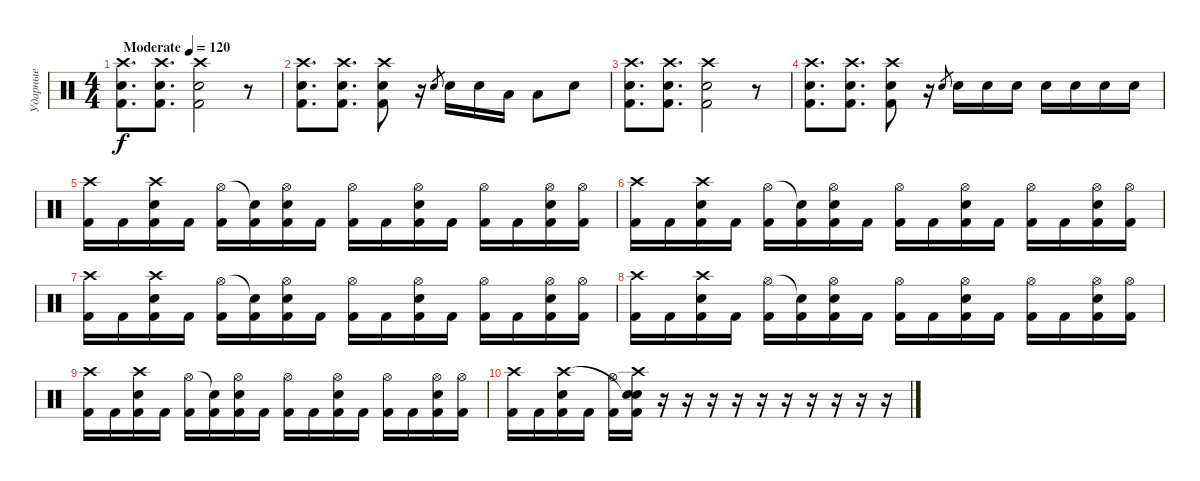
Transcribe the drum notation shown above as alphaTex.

\track ("Ударные" "Ударные") {instrument percussion}
\staff {score}
\articulation defaults
\ts (4 4)
\tempo (120 "Moderate")
\clef neutral
\ks c
("Electric Snare (hit)" "Kick (hit) 2" "Crash high (hit)").8{d dy f} ("Electric Snare (hit)" "Kick (hit) 2" "Crash high (hit)").8{d} ("Electric Snare (hit)" "Crash high (hit)" "Kick (hit) 2").2 r.8 |
("Electric Snare (hit)" "Kick (hit) 2" "Crash high (hit)").8{d} ("Electric Snare (hit)" "Kick (hit) 2" "Crash high (hit)").8{d} ("Electric Snare (hit)" "Crash high (hit)" "Kick (hit) 2").8 r.16 "Electric Snare (hit)".8{gr} "Electric Snare (hit)".16 "Electric Snare (hit)".16 "Low Floor Tom (hit)".16 "Low Floor Tom (hit)".8 "Electric Snare (hit)".8 |
("Electric Snare (hit)" "Kick (hit) 2" "Crash high (hit)").8{d} ("Electric Snare (hit)" "Kick (hit) 2" "Crash high (hit)").8{d} ("Electric Snare (hit)" "Crash high (hit)" "Kick (hit) 2").2 r.8 |
("Electric Snare (hit)" "Kick (hit) 2" "Crash high (hit)").8{d} ("Electric Snare (hit)" "Kick (hit) 2" "Crash high (hit)").8{d} ("Electric Snare (hit)" "Crash high (hit)" "Kick (hit) 2").8 r.16 "Electric Snare (hit)".8{gr} "Electric Snare (hit)".16 "Electric Snare (hit)".16 "Electric Snare (hit)".16 "Electric Snare (hit)".16 "Electric Snare (hit)".16 "Electric Snare (hit)".16 "Electric Snare (hit)".16 |
("Kick (hit) 2" "Crash high (hit)").16 "Kick (hit) 2".16 ("Kick (hit) 2" "Electric Snare (hit)" "Crash high (hit)").16 "Kick (hit) 2".16 ("Kick (hit) 2" "Hi-Hat (open)").16 ("Kick (hit) 2" "Snare (hit)"{t}).16 ("Kick (hit) 2" "Electric Snare (hit)" "Hi-Hat (open)").16 "Kick (hit) 2".16 ("Kick (hit) 2" "Hi-Hat (open)").16 "Kick (hit) 2".16 ("Kick (hit) 2" "Electric Snare (hit)" "Hi-Hat (open)").16 "Kick (hit) 2".16 ("Kick (hit) 2" "Hi-Hat (open)").16 "Kick (hit) 2".16 ("Kick (hit) 2" "Electric Snare (hit)" "Hi-Hat (open)").16 ("Kick (hit) 2" "Hi-Hat (open)").16 |
("Kick (hit) 2" "Crash high (hit)").16 "Kick (hit) 2".16 ("Kick (hit) 2" "Electric Snare (hit)" "Crash high (hit)").16 "Kick (hit) 2".16 ("Kick (hit) 2" "Hi-Hat (open)").16 ("Kick (hit) 2" "Snare (hit)"{t}).16 ("Kick (hit) 2" "Electric Snare (hit)" "Hi-Hat (open)").16 "Kick (hit) 2".16 ("Kick (hit) 2" "Hi-Hat (open)").16 "Kick (hit) 2".16 ("Kick (hit) 2" "Electric Snare (hit)" "Hi-Hat (open)").16 "Kick (hit) 2".16 ("Kick (hit) 2" "Hi-Hat (open)").16 "Kick (hit) 2".16 ("Kick (hit) 2" "Electric Snare (hit)" "Hi-Hat (open)").16 ("Kick (hit) 2" "Hi-Hat (open)").16 |
("Kick (hit) 2" "Crash high (hit)").16 "Kick (hit) 2".16 ("Kick (hit) 2" "Electric Snare (hit)" "Crash high (hit)").16 "Kick (hit) 2".16 ("Kick (hit) 2" "Hi-Hat (open)").16 ("Kick (hit) 2" "Snare (hit)"{t}).16 ("Kick (hit) 2" "Electric Snare (hit)" "Hi-Hat (open)").16 "Kick (hit) 2".16 ("Kick (hit) 2" "Hi-Hat (open)").16 "Kick (hit) 2".16 ("Kick (hit) 2" "Electric Snare (hit)" "Hi-Hat (open)").16 "Kick (hit) 2".16 ("Kick (hit) 2" "Hi-Hat (open)").16 "Kick (hit) 2".16 ("Kick (hit) 2" "Electric Snare (hit)" "Hi-Hat (open)").16 ("Kick (hit) 2" "Hi-Hat (open)").16 |
("Kick (hit) 2" "Crash high (hit)").16 "Kick (hit) 2".16 ("Kick (hit) 2" "Electric Snare (hit)" "Crash high (hit)").16 "Kick (hit) 2".16 ("Kick (hit) 2" "Hi-Hat (open)").16 ("Kick (hit) 2" "Snare (hit)"{t}).16 ("Kick (hit) 2" "Electric Snare (hit)" "Hi-Hat (open)").16 "Kick (hit) 2".16 ("Kick (hit) 2" "Hi-Hat (open)").16 "Kick (hit) 2".16 ("Kick (hit) 2" "Electric Snare (hit)" "Hi-Hat (open)").16 "Kick (hit) 2".16 ("Kick (hit) 2" "Hi-Hat (open)").16 "Kick (hit) 2".16 ("Kick (hit) 2" "Electric Snare (hit)" "Hi-Hat (open)").16 ("Kick (hit) 2" "Hi-Hat (open)").16 |
("Kick (hit) 2" "Crash high (hit)").16 "Kick (hit) 2".16 ("Kick (hit) 2" "Electric Snare (hit)" "Crash high (hit)").16 "Kick (hit) 2".16 ("Kick (hit) 2" "Hi-Hat (open)").16 ("Kick (hit) 2" "Snare (hit)"{t}).16 ("Kick (hit) 2" "Electric Snare (hit)" "Hi-Hat (open)").16 "Kick (hit) 2".16 ("Kick (hit) 2" "Hi-Hat (open)").16 "Kick (hit) 2".16 ("Kick (hit) 2" "Electric Snare (hit)" "Hi-Hat (open)").16 "Kick (hit) 2".16 ("Kick (hit) 2" "Hi-Hat (open)").16 "Kick (hit) 2".16 ("Kick (hit) 2" "Electric Snare (hit)" "Hi-Hat (open)").16 ("Kick (hit) 2" "Hi-Hat (open)").16 |
("Kick (hit) 2" "Crash high (hit)").16 "Kick (hit) 2".16 ("Kick (hit) 2" "Electric Snare (hit)" "Crash high (hit)").16 "Kick (hit) 2".16 ("Kick (hit) 2" "Hi-Hat (open)").16 ("Kick (hit) 2" "Electric Snare (hit)" "Snare (hit)"{t} "Crash high (hit)").16 r.16 r.16 r.16 r.16 r.16 r.16 r.16 r.16 r.16 r.16
